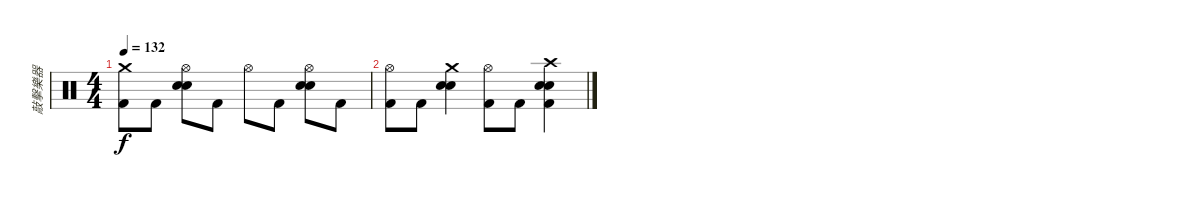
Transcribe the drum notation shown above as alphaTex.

\track ("敲擊樂器" "敲擊樂器") {instrument percussion}
\staff {score}
\articulation defaults
\ts (4 4)
\tempo 132
\clef neutral
\ks c
("Crash medium (hit)" "Kick (hit) 2").8{dy f} "Kick (hit) 2".8 ("Hi-Hat (open)" "Electric Snare (hit)" "Snare (hit) 2").8 "Kick (hit) 2".8 "Hi-Hat (open)".8 "Kick (hit) 2".8 ("Hi-Hat (open)" "Electric Snare (hit)" "Snare (hit) 2").8 "Kick (hit) 2".8 |
("Hi-Hat (open)" "Kick (hit) 2").8 "Kick (hit) 2".8 ("Crash medium (hit)" "Electric Snare (hit)" "Snare (hit) 2").4 ("Hi-Hat (open)" "Kick (hit) 2").8 "Kick (hit) 2".8 ("Crash high (hit)" "Electric Snare (hit)" "Snare (hit) 2" "Kick (hit) 2").4
